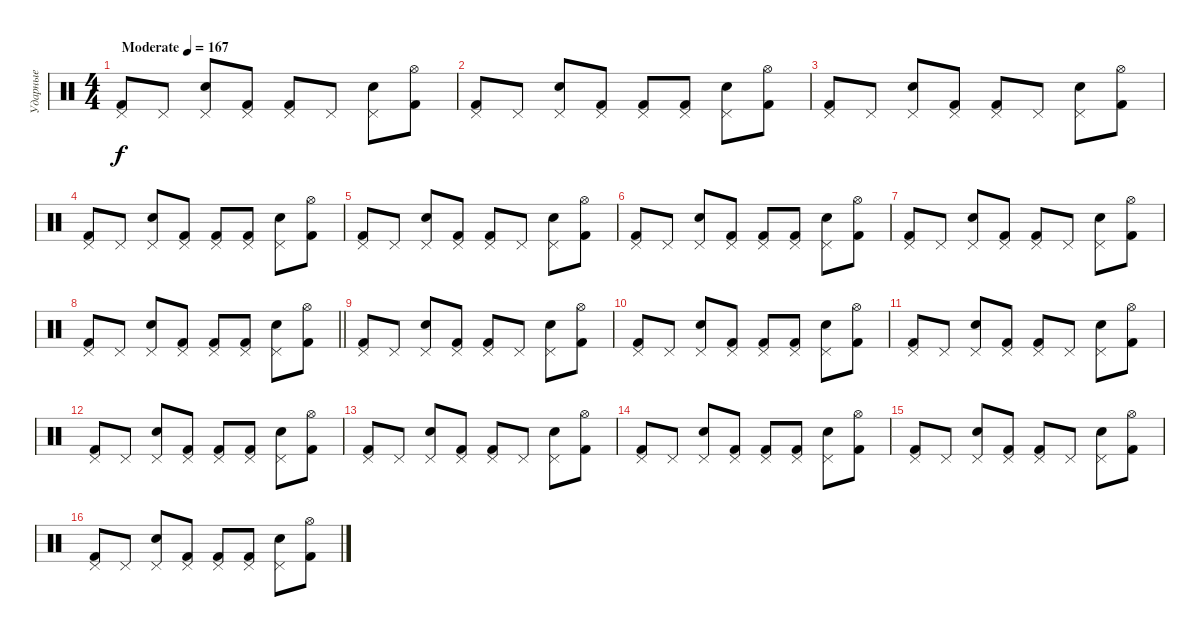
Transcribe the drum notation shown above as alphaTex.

\track ("Ударные" "Ударные") {instrument percussion}
\staff {score}
\articulation defaults
\ts (4 4)
\tempo (167 "Moderate")
\clef neutral
\ks c
("Pedal Hi-Hat (hit)" "Kick (hit) 2").8{dy f} "Pedal Hi-Hat (hit)".8 ("Pedal Hi-Hat (hit)" "Electric Snare (hit)").8 ("Pedal Hi-Hat (hit)" "Kick (hit) 2").8 ("Pedal Hi-Hat (hit)" "Kick (hit) 2").8 "Pedal Hi-Hat (hit)".8 ("Pedal Hi-Hat (hit)" "Electric Snare (hit)").8 ("Hi-Hat (open)" "Kick (hit) 2").8 |
("Pedal Hi-Hat (hit)" "Kick (hit) 2").8 "Pedal Hi-Hat (hit)".8 ("Pedal Hi-Hat (hit)" "Electric Snare (hit)").8 ("Pedal Hi-Hat (hit)" "Kick (hit) 2").8 ("Pedal Hi-Hat (hit)" "Kick (hit) 2").8 ("Pedal Hi-Hat (hit)" "Kick (hit) 2").8 ("Pedal Hi-Hat (hit)" "Electric Snare (hit)").8 ("Hi-Hat (open)" "Kick (hit) 2").8 |
("Pedal Hi-Hat (hit)" "Kick (hit) 2").8 "Pedal Hi-Hat (hit)".8 ("Pedal Hi-Hat (hit)" "Electric Snare (hit)").8 ("Pedal Hi-Hat (hit)" "Kick (hit) 2").8 ("Pedal Hi-Hat (hit)" "Kick (hit) 2").8 "Pedal Hi-Hat (hit)".8 ("Pedal Hi-Hat (hit)" "Electric Snare (hit)").8 ("Hi-Hat (open)" "Kick (hit) 2").8 |
("Pedal Hi-Hat (hit)" "Kick (hit) 2").8 "Pedal Hi-Hat (hit)".8 ("Pedal Hi-Hat (hit)" "Electric Snare (hit)").8 ("Pedal Hi-Hat (hit)" "Kick (hit) 2").8 ("Pedal Hi-Hat (hit)" "Kick (hit) 2").8 ("Pedal Hi-Hat (hit)" "Kick (hit) 2").8 ("Pedal Hi-Hat (hit)" "Electric Snare (hit)").8 ("Hi-Hat (open)" "Kick (hit) 2").8 |
("Pedal Hi-Hat (hit)" "Kick (hit) 2").8 "Pedal Hi-Hat (hit)".8 ("Pedal Hi-Hat (hit)" "Electric Snare (hit)").8 ("Pedal Hi-Hat (hit)" "Kick (hit) 2").8 ("Pedal Hi-Hat (hit)" "Kick (hit) 2").8 "Pedal Hi-Hat (hit)".8 ("Pedal Hi-Hat (hit)" "Electric Snare (hit)").8 ("Hi-Hat (open)" "Kick (hit) 2").8 |
("Pedal Hi-Hat (hit)" "Kick (hit) 2").8 "Pedal Hi-Hat (hit)".8 ("Pedal Hi-Hat (hit)" "Electric Snare (hit)").8 ("Pedal Hi-Hat (hit)" "Kick (hit) 2").8 ("Pedal Hi-Hat (hit)" "Kick (hit) 2").8 ("Pedal Hi-Hat (hit)" "Kick (hit) 2").8 ("Pedal Hi-Hat (hit)" "Electric Snare (hit)").8 ("Hi-Hat (open)" "Kick (hit) 2").8 |
("Pedal Hi-Hat (hit)" "Kick (hit) 2").8 "Pedal Hi-Hat (hit)".8 ("Pedal Hi-Hat (hit)" "Electric Snare (hit)").8 ("Pedal Hi-Hat (hit)" "Kick (hit) 2").8 ("Pedal Hi-Hat (hit)" "Kick (hit) 2").8 "Pedal Hi-Hat (hit)".8 ("Pedal Hi-Hat (hit)" "Electric Snare (hit)").8 ("Hi-Hat (open)" "Kick (hit) 2").8 |
\barLineRight lightlight
("Pedal Hi-Hat (hit)" "Kick (hit) 2").8 "Pedal Hi-Hat (hit)".8 ("Pedal Hi-Hat (hit)" "Electric Snare (hit)").8 ("Pedal Hi-Hat (hit)" "Kick (hit) 2").8 ("Pedal Hi-Hat (hit)" "Kick (hit) 2").8 ("Pedal Hi-Hat (hit)" "Kick (hit) 2").8 ("Pedal Hi-Hat (hit)" "Electric Snare (hit)").8 ("Hi-Hat (open)" "Kick (hit) 2").8 |
("Pedal Hi-Hat (hit)" "Kick (hit) 2").8 "Pedal Hi-Hat (hit)".8 ("Pedal Hi-Hat (hit)" "Electric Snare (hit)").8 ("Pedal Hi-Hat (hit)" "Kick (hit) 2").8 ("Pedal Hi-Hat (hit)" "Kick (hit) 2").8 "Pedal Hi-Hat (hit)".8 ("Pedal Hi-Hat (hit)" "Electric Snare (hit)").8 ("Hi-Hat (open)" "Kick (hit) 2").8 |
("Pedal Hi-Hat (hit)" "Kick (hit) 2").8 "Pedal Hi-Hat (hit)".8 ("Pedal Hi-Hat (hit)" "Electric Snare (hit)").8 ("Pedal Hi-Hat (hit)" "Kick (hit) 2").8 ("Pedal Hi-Hat (hit)" "Kick (hit) 2").8 ("Pedal Hi-Hat (hit)" "Kick (hit) 2").8 ("Pedal Hi-Hat (hit)" "Electric Snare (hit)").8 ("Hi-Hat (open)" "Kick (hit) 2").8 |
("Pedal Hi-Hat (hit)" "Kick (hit) 2").8 "Pedal Hi-Hat (hit)".8 ("Pedal Hi-Hat (hit)" "Electric Snare (hit)").8 ("Pedal Hi-Hat (hit)" "Kick (hit) 2").8 ("Pedal Hi-Hat (hit)" "Kick (hit) 2").8 "Pedal Hi-Hat (hit)".8 ("Pedal Hi-Hat (hit)" "Electric Snare (hit)").8 ("Hi-Hat (open)" "Kick (hit) 2").8 |
("Pedal Hi-Hat (hit)" "Kick (hit) 2").8 "Pedal Hi-Hat (hit)".8 ("Pedal Hi-Hat (hit)" "Electric Snare (hit)").8 ("Pedal Hi-Hat (hit)" "Kick (hit) 2").8 ("Pedal Hi-Hat (hit)" "Kick (hit) 2").8 ("Pedal Hi-Hat (hit)" "Kick (hit) 2").8 ("Pedal Hi-Hat (hit)" "Electric Snare (hit)").8 ("Hi-Hat (open)" "Kick (hit) 2").8 |
("Pedal Hi-Hat (hit)" "Kick (hit) 2").8 "Pedal Hi-Hat (hit)".8 ("Pedal Hi-Hat (hit)" "Electric Snare (hit)").8 ("Pedal Hi-Hat (hit)" "Kick (hit) 2").8 ("Pedal Hi-Hat (hit)" "Kick (hit) 2").8 "Pedal Hi-Hat (hit)".8 ("Pedal Hi-Hat (hit)" "Electric Snare (hit)").8 ("Hi-Hat (open)" "Kick (hit) 2").8 |
("Pedal Hi-Hat (hit)" "Kick (hit) 2").8 "Pedal Hi-Hat (hit)".8 ("Pedal Hi-Hat (hit)" "Electric Snare (hit)").8 ("Pedal Hi-Hat (hit)" "Kick (hit) 2").8 ("Pedal Hi-Hat (hit)" "Kick (hit) 2").8 ("Pedal Hi-Hat (hit)" "Kick (hit) 2").8 ("Pedal Hi-Hat (hit)" "Electric Snare (hit)").8 ("Hi-Hat (open)" "Kick (hit) 2").8 |
("Pedal Hi-Hat (hit)" "Kick (hit) 2").8 "Pedal Hi-Hat (hit)".8 ("Pedal Hi-Hat (hit)" "Electric Snare (hit)").8 ("Pedal Hi-Hat (hit)" "Kick (hit) 2").8 ("Pedal Hi-Hat (hit)" "Kick (hit) 2").8 "Pedal Hi-Hat (hit)".8 ("Pedal Hi-Hat (hit)" "Electric Snare (hit)").8 ("Hi-Hat (open)" "Kick (hit) 2").8 |
("Pedal Hi-Hat (hit)" "Kick (hit) 2").8 "Pedal Hi-Hat (hit)".8 ("Pedal Hi-Hat (hit)" "Electric Snare (hit)").8 ("Pedal Hi-Hat (hit)" "Kick (hit) 2").8 ("Pedal Hi-Hat (hit)" "Kick (hit) 2").8 ("Pedal Hi-Hat (hit)" "Kick (hit) 2").8 ("Pedal Hi-Hat (hit)" "Electric Snare (hit)").8 ("Hi-Hat (open)" "Kick (hit) 2").8
